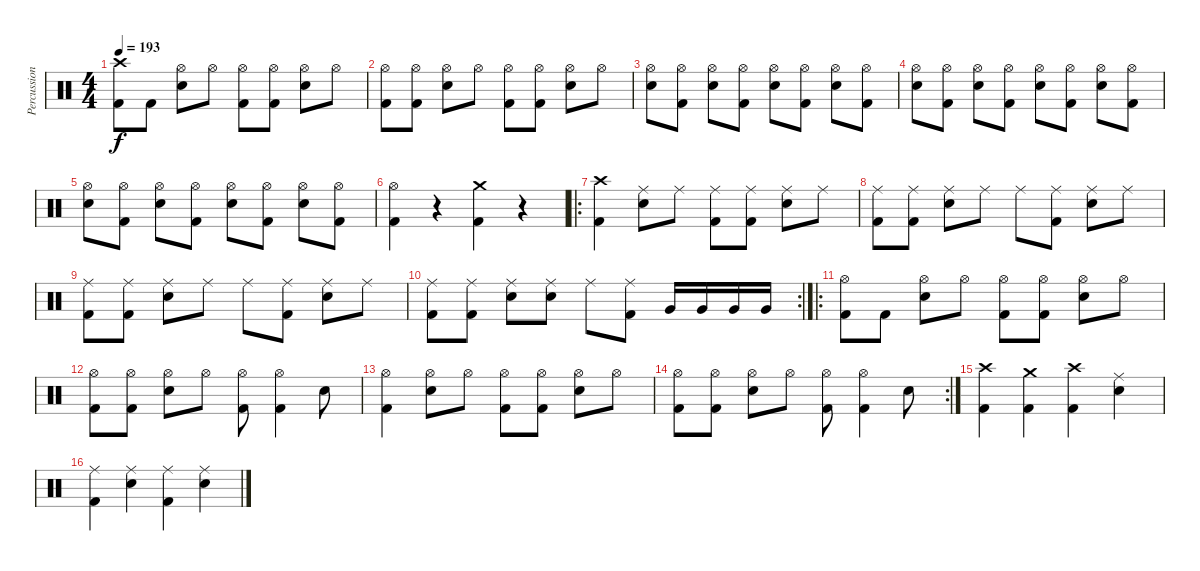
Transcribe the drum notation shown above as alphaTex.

\track ("Percussion" "Percussion") {instrument percussion}
\staff {score}
\articulation defaults
\ts (4 4)
\tempo 193
\clef neutral
\ks c
("Crash high (hit)" "Kick (hit) 2").8{dy f} "Kick (hit) 2".8 ("Hi-Hat (open)" "Snare (hit) 2").8 "Hi-Hat (open)".8 ("Hi-Hat (open)" "Kick (hit) 2").8 ("Hi-Hat (open)" "Kick (hit) 2").8 ("Hi-Hat (open)" "Snare (hit) 2").8 "Hi-Hat (open)".8 |
("Hi-Hat (open)" "Kick (hit) 2").8 ("Hi-Hat (open)" "Kick (hit) 2").8 ("Hi-Hat (open)" "Snare (hit) 2").8 "Hi-Hat (open)".8 ("Hi-Hat (open)" "Kick (hit) 2").8 ("Hi-Hat (open)" "Kick (hit) 2").8 ("Hi-Hat (open)" "Snare (hit) 2").8 "Hi-Hat (open)".8 |
("Hi-Hat (open)" "Snare (hit) 2").8 ("Hi-Hat (open)" "Kick (hit) 2").8 ("Hi-Hat (open)" "Snare (hit) 2").8 ("Hi-Hat (open)" "Kick (hit) 2").8 ("Hi-Hat (open)" "Snare (hit) 2").8 ("Hi-Hat (open)" "Kick (hit) 2").8 ("Hi-Hat (open)" "Snare (hit) 2").8 ("Hi-Hat (open)" "Kick (hit) 2").8 |
("Hi-Hat (open)" "Snare (hit) 2").8 ("Hi-Hat (open)" "Kick (hit) 2").8 ("Hi-Hat (open)" "Snare (hit) 2").8 ("Hi-Hat (open)" "Kick (hit) 2").8 ("Hi-Hat (open)" "Snare (hit) 2").8 ("Hi-Hat (open)" "Kick (hit) 2").8 ("Hi-Hat (open)" "Snare (hit) 2").8 ("Hi-Hat (open)" "Kick (hit) 2").8 |
("Hi-Hat (open)" "Snare (hit) 2").8 ("Hi-Hat (open)" "Kick (hit) 2").8 ("Hi-Hat (open)" "Snare (hit) 2").8 ("Hi-Hat (open)" "Kick (hit) 2").8 ("Hi-Hat (open)" "Snare (hit) 2").8 ("Hi-Hat (open)" "Kick (hit) 2").8 ("Hi-Hat (open)" "Snare (hit) 2").8 ("Hi-Hat (open)" "Kick (hit) 2").8 |
("Hi-Hat (open)" "Kick (hit) 2").4 r.4 ("Crash medium (hit)" "Kick (hit) 2").4 r.4 |
\ro
("Crash high (hit)" "Kick (hit) 2").4 ("Ride (middle)" "Snare (hit) 2").8 "Ride (middle)".8 ("Ride (middle)" "Kick (hit) 2").8 ("Ride (middle)" "Kick (hit) 2").8 ("Ride (middle)" "Snare (hit) 2").8 "Ride (middle)".8 |
("Ride (middle)" "Kick (hit) 2").8 ("Ride (middle)" "Kick (hit) 2").8 ("Ride (middle)" "Snare (hit) 2").8 "Ride (middle)".8 "Ride (middle)".8 ("Ride (middle)" "Kick (hit) 2").8 ("Ride (middle)" "Snare (hit) 2").8 "Ride (middle)".8 |
("Ride (middle)" "Kick (hit) 2").8 ("Ride (middle)" "Kick (hit) 2").8 ("Ride (middle)" "Snare (hit) 2").8 "Ride (middle)".8 "Ride (middle)".8 ("Ride (middle)" "Kick (hit) 2").8 ("Ride (middle)" "Snare (hit) 2").8 "Ride (middle)".8 |
\rc 2
("Ride (middle)" "Kick (hit) 2").8 ("Ride (middle)" "Kick (hit) 2").8 ("Ride (middle)" "Snare (hit) 2").8 ("Ride (middle)" "Snare (hit) 2").8 "Ride (middle)".8 ("Ride (middle)" "Kick (hit) 2").8 "Very Low Tom (hit)".16 "Very Low Tom (hit)".16 "Very Low Tom (hit)".16 "Very Low Tom (hit)".16 |
\ro
("Hi-Hat (open)" "Kick (hit) 2").8 "Kick (hit) 2".8 ("Hi-Hat (open)" "Snare (hit) 2").8 "Hi-Hat (open)".8 ("Hi-Hat (open)" "Kick (hit) 2").8 ("Hi-Hat (open)" "Kick (hit) 2").8 ("Hi-Hat (open)" "Snare (hit) 2").8 "Hi-Hat (open)".8 |
("Hi-Hat (open)" "Kick (hit) 2").8 ("Hi-Hat (open)" "Kick (hit) 2").8 ("Hi-Hat (open)" "Snare (hit) 2").8 "Hi-Hat (open)".8 ("Hi-Hat (open)" "Kick (hit) 2").8 ("Hi-Hat (open)" "Kick (hit) 2").4 "Snare (hit) 2".8 |
("Hi-Hat (open)" "Kick (hit) 2").4 ("Hi-Hat (open)" "Snare (hit) 2").8 "Hi-Hat (open)".8 ("Hi-Hat (open)" "Kick (hit) 2").8 ("Hi-Hat (open)" "Kick (hit) 2").8 ("Hi-Hat (open)" "Snare (hit) 2").8 "Hi-Hat (open)".8 |
\rc 2
("Hi-Hat (open)" "Kick (hit) 2").8 ("Hi-Hat (open)" "Kick (hit) 2").8 ("Hi-Hat (open)" "Snare (hit) 2").8 "Hi-Hat (open)".8 ("Hi-Hat (open)" "Kick (hit) 2").8 ("Hi-Hat (open)" "Kick (hit) 2").4 "Snare (hit) 2".8 |
("Crash high (hit)" "Kick (hit) 2").4 ("Crash medium (hit)" "Kick (hit) 2").4 ("Crash high (hit)" "Kick (hit) 2").4 ("Ride (middle)" "Snare (hit) 2").4 |
("Ride (middle)" "Kick (hit) 2").4 ("Ride (middle)" "Snare (hit) 2").4 ("Ride (middle)" "Kick (hit) 2").4 ("Ride (middle)" "Snare (hit) 2").4
